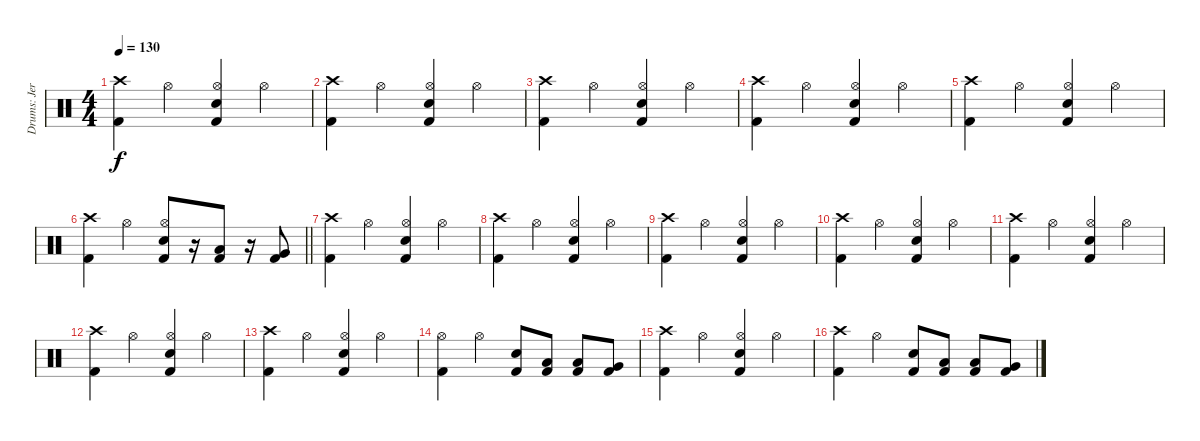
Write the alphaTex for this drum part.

\track ("Drums: Jere Luokkamäki" "Drums: Jer") {instrument percussion}
\staff {score}
\articulation defaults
\ts (4 4)
\tempo 130
\clef neutral
\ks aminor
("Crash high (hit)" "Kick (hit) 2").4{dy f} "Hi-Hat (open)".4 ("Hi-Hat (open)" "Electric Snare (hit)" "Kick (hit) 2").4 "Hi-Hat (open)".4 |
("Crash high (hit)" "Kick (hit) 2").4 "Hi-Hat (open)".4 ("Hi-Hat (open)" "Electric Snare (hit)" "Kick (hit) 2").4 "Hi-Hat (open)".4 |
("Crash high (hit)" "Kick (hit) 2").4 "Hi-Hat (open)".4 ("Hi-Hat (open)" "Electric Snare (hit)" "Kick (hit) 2").4 "Hi-Hat (open)".4 |
("Crash high (hit)" "Kick (hit) 2").4 "Hi-Hat (open)".4 ("Hi-Hat (open)" "Electric Snare (hit)" "Kick (hit) 2").4 "Hi-Hat (open)".4 |
("Crash high (hit)" "Kick (hit) 2").4 "Hi-Hat (open)".4 ("Hi-Hat (open)" "Electric Snare (hit)" "Kick (hit) 2").4 "Hi-Hat (open)".4 |
\barLineRight lightlight
("Crash high (hit)" "Kick (hit) 2").4 "Hi-Hat (open)".4 ("Hi-Hat (open)" "Electric Snare (hit)" "Kick (hit) 2").8 r.16 ("Low Tom (hit)" "Kick (hit) 2").8 r.16 ("Very Low Tom (hit)" "Kick (hit) 2").8 |
("Crash high (hit)" "Kick (hit) 2").4 "Hi-Hat (open)".4 ("Hi-Hat (open)" "Electric Snare (hit)" "Kick (hit) 2").4 "Hi-Hat (open)".4 |
("Crash high (hit)" "Kick (hit) 2").4 "Hi-Hat (open)".4 ("Hi-Hat (open)" "Electric Snare (hit)" "Kick (hit) 2").4 "Hi-Hat (open)".4 |
("Crash high (hit)" "Kick (hit) 2").4 "Hi-Hat (open)".4 ("Hi-Hat (open)" "Electric Snare (hit)" "Kick (hit) 2").4 "Hi-Hat (open)".4 |
("Crash high (hit)" "Kick (hit) 2").4 "Hi-Hat (open)".4 ("Hi-Hat (open)" "Electric Snare (hit)" "Kick (hit) 2").4 "Hi-Hat (open)".4 |
("Crash high (hit)" "Kick (hit) 2").4 "Hi-Hat (open)".4 ("Hi-Hat (open)" "Electric Snare (hit)" "Kick (hit) 2").4 "Hi-Hat (open)".4 |
("Crash high (hit)" "Kick (hit) 2").4 "Hi-Hat (open)".4 ("Hi-Hat (open)" "Electric Snare (hit)" "Kick (hit) 2").4 "Hi-Hat (open)".4 |
("Crash high (hit)" "Kick (hit) 2").4 "Hi-Hat (open)".4 ("Hi-Hat (open)" "Electric Snare (hit)" "Kick (hit) 2").4 "Hi-Hat (open)".4 |
("Hi-Hat (open)" "Kick (hit) 2").4 "Hi-Hat (open)".4 ("Electric Snare (hit)" "Kick (hit) 2").8 ("Low Tom (hit)" "Kick (hit) 2").8 ("Low Tom (hit)" "Kick (hit) 2").8 ("Very Low Tom (hit)" "Kick (hit) 2").8 |
("Crash high (hit)" "Kick (hit) 2").4 "Hi-Hat (open)".4 ("Hi-Hat (open)" "Electric Snare (hit)" "Kick (hit) 2").4 "Hi-Hat (open)".4 |
("Crash high (hit)" "Kick (hit) 2").4 "Hi-Hat (open)".4 ("Electric Snare (hit)" "Kick (hit) 2").8 ("Low Tom (hit)" "Kick (hit) 2").8 ("Low Tom (hit)" "Kick (hit) 2").8 ("Very Low Tom (hit)" "Kick (hit) 2").8
